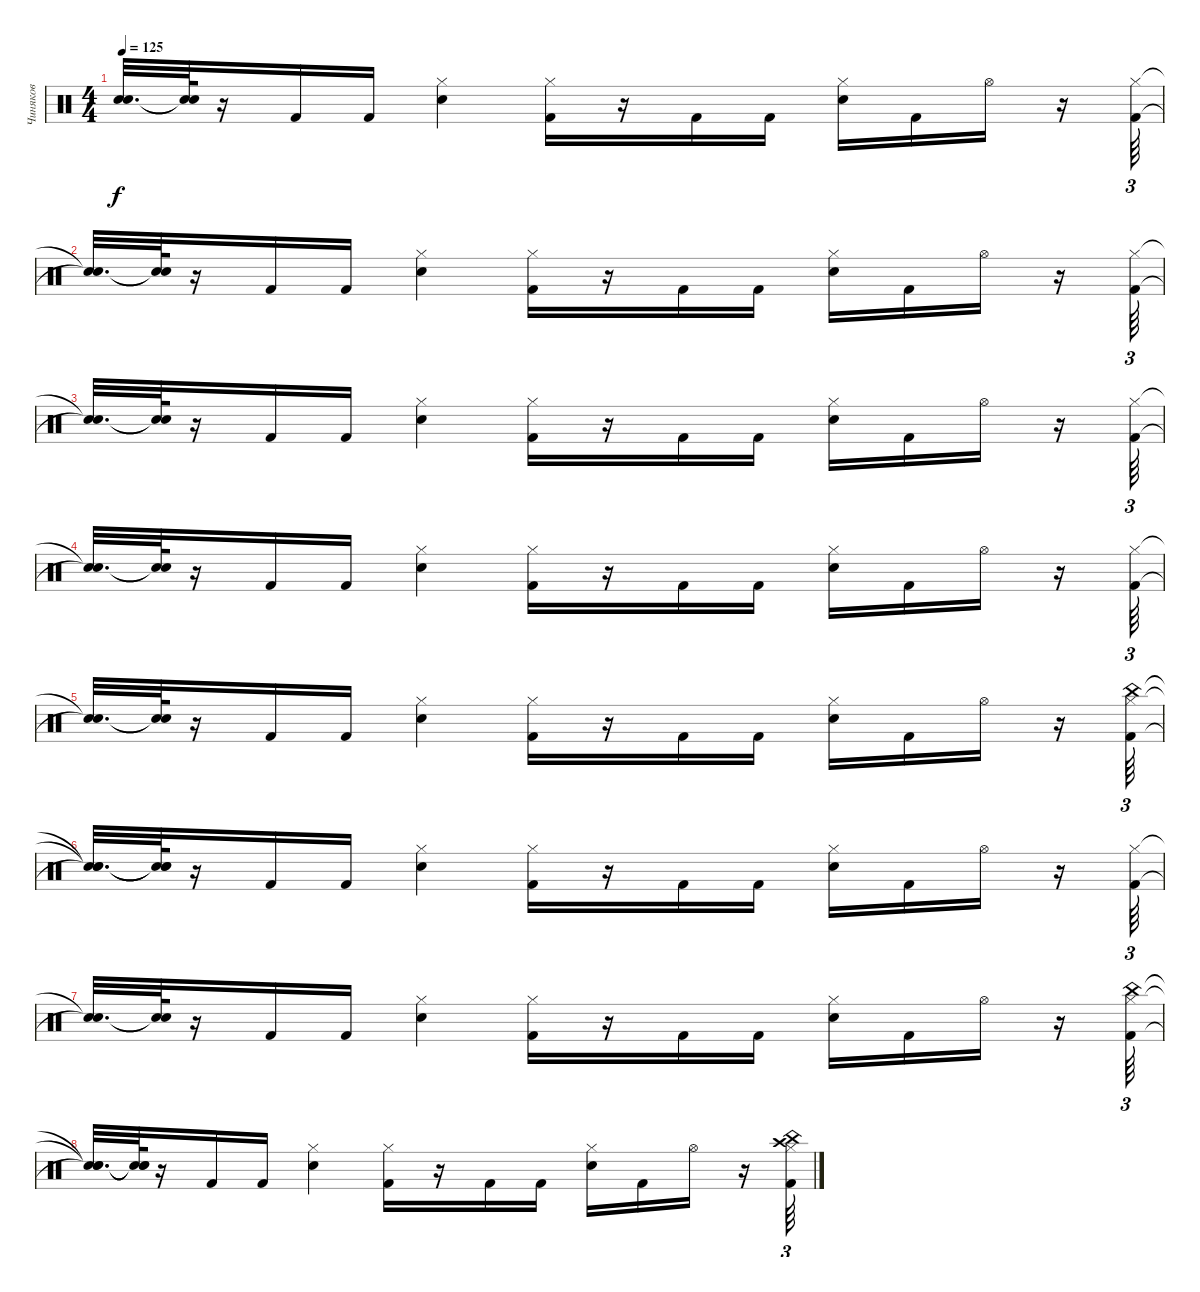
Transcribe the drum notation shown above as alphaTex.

\track ("Чиняков" "Чиняков") {instrument percussion}
\staff {score}
\articulation defaults
\ts (4 4)
\tempo 125
\clef neutral
\ks c
("Snare (hit)"{t} "Snare (hit)"{t}).32{d dy f} ("Snare (hit)"{t} "Snare (hit)"{t}).64 r.16 "Kick (hit) 2".16 "Kick (hit) 2".16 ("Electric Snare (hit)" "Hi-Hat (closed)").4 ("Kick (hit) 2" "Hi-Hat (closed)").16 r.16 "Kick (hit) 2".16 "Kick (hit) 2".16 ("Electric Snare (hit)" "Hi-Hat (closed)").16 "Kick (hit) 2".16 "Hi-Hat (open)".16 r.16 ("Kick (hit) 2" "Hi-Hat (closed)").64{tu (3 2)} |
("Snare (hit)"{t} "Snare (hit)"{t}).32{d} ("Snare (hit)"{t} "Snare (hit)"{t}).64 r.16 "Kick (hit) 2".16 "Kick (hit) 2".16 ("Electric Snare (hit)" "Hi-Hat (closed)").4 ("Kick (hit) 2" "Hi-Hat (closed)").16 r.16 "Kick (hit) 2".16 "Kick (hit) 2".16 ("Electric Snare (hit)" "Hi-Hat (closed)").16 "Kick (hit) 2".16 "Hi-Hat (open)".16 r.16 ("Kick (hit) 2" "Hi-Hat (closed)").64{tu (3 2)} |
("Snare (hit)"{t} "Snare (hit)"{t}).32{d} ("Snare (hit)"{t} "Snare (hit)"{t}).64 r.16 "Kick (hit) 2".16 "Kick (hit) 2".16 ("Electric Snare (hit)" "Hi-Hat (closed)").4 ("Kick (hit) 2" "Hi-Hat (closed)").16 r.16 "Kick (hit) 2".16 "Kick (hit) 2".16 ("Electric Snare (hit)" "Hi-Hat (closed)").16 "Kick (hit) 2".16 "Hi-Hat (open)".16 r.16 ("Kick (hit) 2" "Hi-Hat (closed)").64{tu (3 2)} |
("Snare (hit)"{t} "Snare (hit)"{t}).32{d} ("Snare (hit)"{t} "Snare (hit)"{t}).64 r.16 "Kick (hit) 2".16 "Kick (hit) 2".16 ("Electric Snare (hit)" "Hi-Hat (closed)").4 ("Kick (hit) 2" "Hi-Hat (closed)").16 r.16 "Kick (hit) 2".16 "Kick (hit) 2".16 ("Electric Snare (hit)" "Hi-Hat (closed)").16 "Kick (hit) 2".16 "Hi-Hat (open)".16 r.16 ("Kick (hit) 2" "Hi-Hat (closed)").64{tu (3 2)} |
("Snare (hit)"{t} "Snare (hit)"{t}).32{d} ("Snare (hit)"{t} "Snare (hit)"{t}).64 r.16 "Kick (hit) 2".16 "Kick (hit) 2".16 ("Electric Snare (hit)" "Hi-Hat (closed)").4 ("Kick (hit) 2" "Hi-Hat (closed)").16 r.16 "Kick (hit) 2".16 "Kick (hit) 2".16 ("Electric Snare (hit)" "Hi-Hat (closed)").16 "Kick (hit) 2".16 "Hi-Hat (open)".16 r.16 ("Kick (hit) 2" "Hi-Hat (closed)" "China (hit)").64{tu (3 2)} |
("Snare (hit)"{t} "Snare (hit)"{t} "Snare (hit)"{t}).32{d} ("Snare (hit)"{t} "Snare (hit)"{t} "Snare (hit)"{t}).64 r.16 "Kick (hit) 2".16 "Kick (hit) 2".16 ("Electric Snare (hit)" "Hi-Hat (closed)").4 ("Kick (hit) 2" "Hi-Hat (closed)").16 r.16 "Kick (hit) 2".16 "Kick (hit) 2".16 ("Electric Snare (hit)" "Hi-Hat (closed)").16 "Kick (hit) 2".16 "Hi-Hat (open)".16 r.16 ("Kick (hit) 2" "Hi-Hat (closed)").64{tu (3 2)} |
("Snare (hit)"{t} "Snare (hit)"{t}).32{d} ("Snare (hit)"{t} "Snare (hit)"{t}).64 r.16 "Kick (hit) 2".16 "Kick (hit) 2".16 ("Electric Snare (hit)" "Hi-Hat (closed)").4 ("Kick (hit) 2" "Hi-Hat (closed)").16 r.16 "Kick (hit) 2".16 "Kick (hit) 2".16 ("Electric Snare (hit)" "Hi-Hat (closed)").16 "Kick (hit) 2".16 "Hi-Hat (open)".16 r.16 ("Kick (hit) 2" "Hi-Hat (closed)" "China (hit)").64{tu (3 2)} |
("Snare (hit)"{t} "Snare (hit)"{t} "Snare (hit)"{t}).32{d} ("Snare (hit)"{t} "Snare (hit)"{t} "Snare (hit)"{t}).64 r.16 "Kick (hit) 2".16 "Kick (hit) 2".16 ("Electric Snare (hit)" "Hi-Hat (closed)").4 ("Kick (hit) 2" "Hi-Hat (closed)").16 r.16 "Kick (hit) 2".16 "Kick (hit) 2".16 ("Electric Snare (hit)" "Hi-Hat (closed)").16 "Kick (hit) 2".16 "Hi-Hat (open)".16 r.16 ("Kick (hit) 2" "Hi-Hat (closed)" "Crash high (hit)" "China (hit)").64{tu (3 2)}
